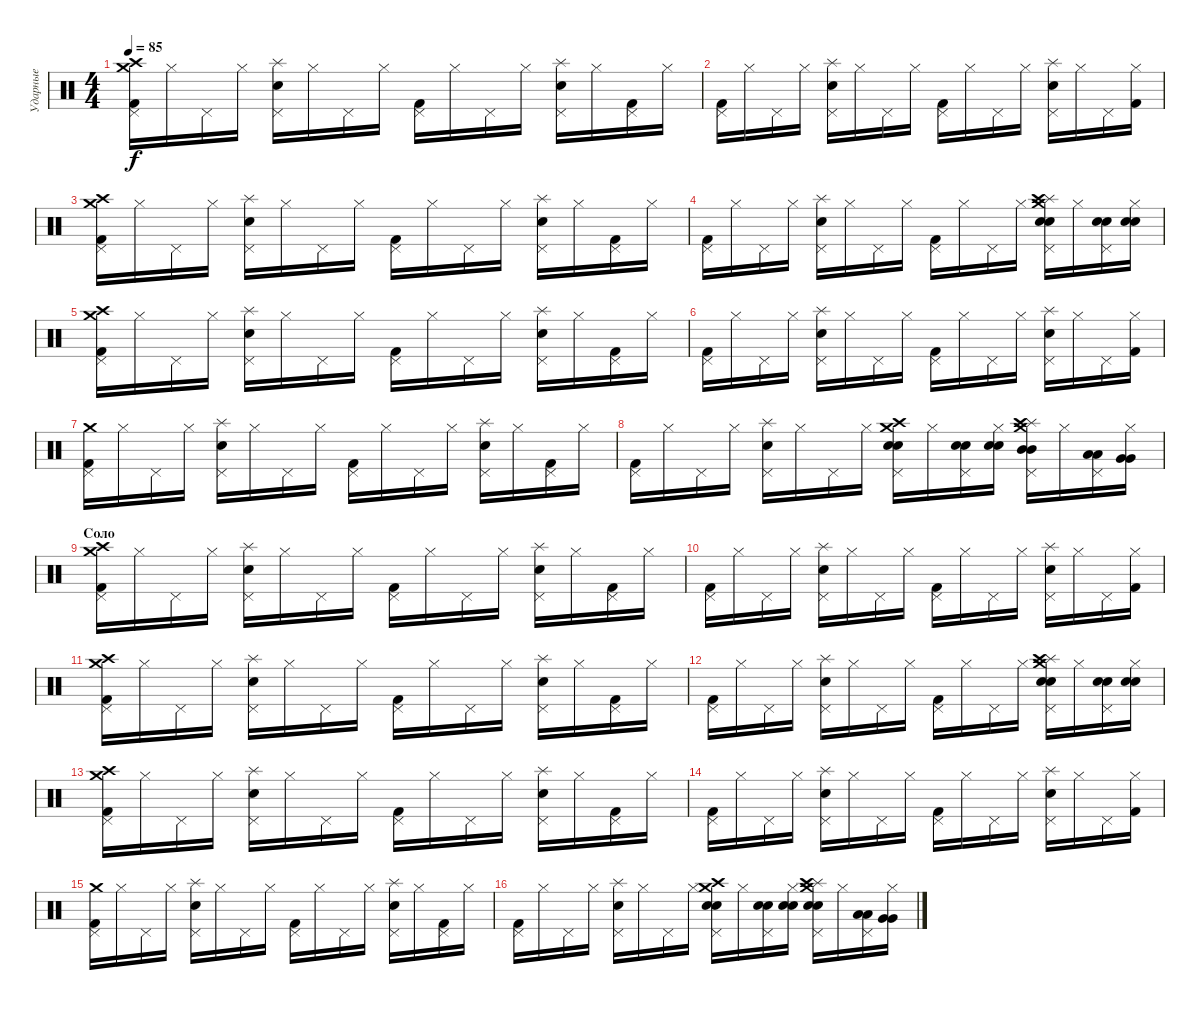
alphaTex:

\track ("Ударные" "Ударные") {instrument percussion}
\staff {score}
\articulation defaults
\ts (4 4)
\tempo 85
\clef neutral
\ks c
("Kick (hit) 2" "Pedal Hi-Hat (hit)" "Crash high (hit)" "Crash medium (hit)").16{dy f} "Hi-Hat (closed)".16 "Pedal Hi-Hat (hit)".16 "Hi-Hat (closed)".16 ("Snare (hit) 2" "Pedal Hi-Hat (hit)" "Splash (hit)").16 "Hi-Hat (closed)".16 "Pedal Hi-Hat (hit)".16 "Hi-Hat (closed)".16 ("Kick (hit) 2" "Pedal Hi-Hat (hit)").16 "Hi-Hat (closed)".16 "Pedal Hi-Hat (hit)".16 "Hi-Hat (closed)".16 ("Snare (hit) 2" "Pedal Hi-Hat (hit)" "Splash (hit)").16 "Hi-Hat (closed)".16 ("Kick (hit) 2" "Pedal Hi-Hat (hit)").16 "Hi-Hat (closed)".16 |
("Kick (hit) 2" "Pedal Hi-Hat (hit)").16 "Hi-Hat (closed)".16 "Pedal Hi-Hat (hit)".16 "Hi-Hat (closed)".16 ("Snare (hit) 2" "Pedal Hi-Hat (hit)" "Splash (hit)").16 "Hi-Hat (closed)".16 "Pedal Hi-Hat (hit)".16 "Hi-Hat (closed)".16 ("Kick (hit) 2" "Pedal Hi-Hat (hit)").16 "Hi-Hat (closed)".16 "Pedal Hi-Hat (hit)".16 "Hi-Hat (closed)".16 ("Snare (hit) 2" "Pedal Hi-Hat (hit)" "Splash (hit)").16 "Hi-Hat (closed)".16 "Pedal Hi-Hat (hit)".16 ("Kick (hit) 2" "Hi-Hat (closed)").16 |
("Kick (hit) 2" "Pedal Hi-Hat (hit)" "Crash medium (hit)" "Crash high (hit)").16 "Hi-Hat (closed)".16 "Pedal Hi-Hat (hit)".16 "Hi-Hat (closed)".16 ("Snare (hit) 2" "Pedal Hi-Hat (hit)" "Splash (hit)").16 "Hi-Hat (closed)".16 "Pedal Hi-Hat (hit)".16 "Hi-Hat (closed)".16 ("Kick (hit) 2" "Pedal Hi-Hat (hit)").16 "Hi-Hat (closed)".16 "Pedal Hi-Hat (hit)".16 "Hi-Hat (closed)".16 ("Snare (hit) 2" "Pedal Hi-Hat (hit)" "Splash (hit)").16 "Hi-Hat (closed)".16 ("Kick (hit) 2" "Pedal Hi-Hat (hit)").16 "Hi-Hat (closed)".16 |
("Kick (hit) 2" "Pedal Hi-Hat (hit)").16 "Hi-Hat (closed)".16 "Pedal Hi-Hat (hit)".16 "Hi-Hat (closed)".16 ("Snare (hit) 2" "Pedal Hi-Hat (hit)" "Splash (hit)").16 "Hi-Hat (closed)".16 "Pedal Hi-Hat (hit)".16 "Hi-Hat (closed)".16 ("Kick (hit) 2" "Pedal Hi-Hat (hit)").16 "Hi-Hat (closed)".16 "Pedal Hi-Hat (hit)".16 "Hi-Hat (closed)".16 ("Snare (hit) 2" "Snare (hit) 2" "Pedal Hi-Hat (hit)" "Splash (hit)" "Crash medium (hit)" "Crash high (hit)").16 "Hi-Hat (closed)".16 ("Snare (hit) 2" "Snare (hit) 2" "Pedal Hi-Hat (hit)").16 ("Snare (hit) 2" "Snare (hit) 2" "Hi-Hat (closed)").16 |
("Kick (hit) 2" "Pedal Hi-Hat (hit)" "Crash medium (hit)" "Crash high (hit)").16 "Hi-Hat (closed)".16 "Pedal Hi-Hat (hit)".16 "Hi-Hat (closed)".16 ("Snare (hit) 2" "Pedal Hi-Hat (hit)" "Splash (hit)").16 "Hi-Hat (closed)".16 "Pedal Hi-Hat (hit)".16 "Hi-Hat (closed)".16 ("Kick (hit) 2" "Pedal Hi-Hat (hit)").16 "Hi-Hat (closed)".16 "Pedal Hi-Hat (hit)".16 "Hi-Hat (closed)".16 ("Snare (hit) 2" "Pedal Hi-Hat (hit)" "Splash (hit)").16 "Hi-Hat (closed)".16 ("Kick (hit) 2" "Pedal Hi-Hat (hit)").16 "Hi-Hat (closed)".16 |
("Kick (hit) 2" "Pedal Hi-Hat (hit)").16 "Hi-Hat (closed)".16 "Pedal Hi-Hat (hit)".16 "Hi-Hat (closed)".16 ("Snare (hit) 2" "Pedal Hi-Hat (hit)" "Splash (hit)").16 "Hi-Hat (closed)".16 "Pedal Hi-Hat (hit)".16 "Hi-Hat (closed)".16 ("Kick (hit) 2" "Pedal Hi-Hat (hit)").16 "Hi-Hat (closed)".16 "Pedal Hi-Hat (hit)".16 "Hi-Hat (closed)".16 ("Snare (hit) 2" "Pedal Hi-Hat (hit)" "Splash (hit)").16 "Hi-Hat (closed)".16 "Pedal Hi-Hat (hit)".16 ("Kick (hit) 2" "Hi-Hat (closed)").16 |
("Kick (hit) 2" "Pedal Hi-Hat (hit)" "Crash medium (hit)").16 "Hi-Hat (closed)".16 "Pedal Hi-Hat (hit)".16 "Hi-Hat (closed)".16 ("Snare (hit) 2" "Pedal Hi-Hat (hit)" "Splash (hit)").16 "Hi-Hat (closed)".16 "Pedal Hi-Hat (hit)".16 "Hi-Hat (closed)".16 ("Kick (hit) 2" "Pedal Hi-Hat (hit)").16 "Hi-Hat (closed)".16 "Pedal Hi-Hat (hit)".16 "Hi-Hat (closed)".16 ("Snare (hit) 2" "Pedal Hi-Hat (hit)" "Splash (hit)").16 "Hi-Hat (closed)".16 ("Kick (hit) 2" "Pedal Hi-Hat (hit)").16 "Hi-Hat (closed)".16 |
("Kick (hit) 2" "Pedal Hi-Hat (hit)").16 "Hi-Hat (closed)".16 "Pedal Hi-Hat (hit)".16 "Hi-Hat (closed)".16 ("Snare (hit) 2" "Pedal Hi-Hat (hit)" "Splash (hit)").16 "Hi-Hat (closed)".16 "Pedal Hi-Hat (hit)".16 "Hi-Hat (closed)".16 ("Snare (hit) 2" "Snare (hit) 2" "Pedal Hi-Hat (hit)" "Crash medium (hit)" "Crash high (hit)").16 "Hi-Hat (closed)".16 ("Snare (hit) 2" "Snare (hit) 2" "Pedal Hi-Hat (hit)").16 ("Snare (hit) 2" "Snare (hit) 2" "Hi-Hat (closed)").16 ("Mid Tom (hit)" "Mid Tom (hit)" "Pedal Hi-Hat (hit)" "Splash (hit)" "Crash medium (hit)" "Crash high (hit)").16 "Hi-Hat (closed)".16 ("Low Tom (hit)" "Low Tom (hit)" "Pedal Hi-Hat (hit)").16 ("Very Low Tom (hit)" "Very Low Tom (hit)" "Hi-Hat (closed)").16 |
\section ("" "Соло")
("Kick (hit) 2" "Pedal Hi-Hat (hit)" "Crash high (hit)" "Crash medium (hit)").16 "Hi-Hat (closed)".16 "Pedal Hi-Hat (hit)".16 "Hi-Hat (closed)".16 ("Snare (hit) 2" "Pedal Hi-Hat (hit)" "Splash (hit)").16 "Hi-Hat (closed)".16 "Pedal Hi-Hat (hit)".16 "Hi-Hat (closed)".16 ("Kick (hit) 2" "Pedal Hi-Hat (hit)").16 "Hi-Hat (closed)".16 "Pedal Hi-Hat (hit)".16 "Hi-Hat (closed)".16 ("Snare (hit) 2" "Pedal Hi-Hat (hit)" "Splash (hit)").16 "Hi-Hat (closed)".16 ("Kick (hit) 2" "Pedal Hi-Hat (hit)").16 "Hi-Hat (closed)".16 |
("Kick (hit) 2" "Pedal Hi-Hat (hit)").16 "Hi-Hat (closed)".16 "Pedal Hi-Hat (hit)".16 "Hi-Hat (closed)".16 ("Snare (hit) 2" "Pedal Hi-Hat (hit)" "Splash (hit)").16 "Hi-Hat (closed)".16 "Pedal Hi-Hat (hit)".16 "Hi-Hat (closed)".16 ("Kick (hit) 2" "Pedal Hi-Hat (hit)").16 "Hi-Hat (closed)".16 "Pedal Hi-Hat (hit)".16 "Hi-Hat (closed)".16 ("Snare (hit) 2" "Pedal Hi-Hat (hit)" "Splash (hit)").16 "Hi-Hat (closed)".16 "Pedal Hi-Hat (hit)".16 ("Kick (hit) 2" "Hi-Hat (closed)").16 |
("Kick (hit) 2" "Pedal Hi-Hat (hit)" "Crash medium (hit)" "Crash high (hit)").16 "Hi-Hat (closed)".16 "Pedal Hi-Hat (hit)".16 "Hi-Hat (closed)".16 ("Snare (hit) 2" "Pedal Hi-Hat (hit)" "Splash (hit)").16 "Hi-Hat (closed)".16 "Pedal Hi-Hat (hit)".16 "Hi-Hat (closed)".16 ("Kick (hit) 2" "Pedal Hi-Hat (hit)").16 "Hi-Hat (closed)".16 "Pedal Hi-Hat (hit)".16 "Hi-Hat (closed)".16 ("Snare (hit) 2" "Pedal Hi-Hat (hit)" "Splash (hit)").16 "Hi-Hat (closed)".16 ("Kick (hit) 2" "Pedal Hi-Hat (hit)").16 "Hi-Hat (closed)".16 |
("Kick (hit) 2" "Pedal Hi-Hat (hit)").16 "Hi-Hat (closed)".16 "Pedal Hi-Hat (hit)".16 "Hi-Hat (closed)".16 ("Snare (hit) 2" "Pedal Hi-Hat (hit)" "Splash (hit)").16 "Hi-Hat (closed)".16 "Pedal Hi-Hat (hit)".16 "Hi-Hat (closed)".16 ("Kick (hit) 2" "Pedal Hi-Hat (hit)").16 "Hi-Hat (closed)".16 "Pedal Hi-Hat (hit)".16 "Hi-Hat (closed)".16 ("Snare (hit) 2" "Snare (hit) 2" "Pedal Hi-Hat (hit)" "Splash (hit)" "Crash medium (hit)" "Crash high (hit)").16 "Hi-Hat (closed)".16 ("Snare (hit) 2" "Snare (hit) 2" "Pedal Hi-Hat (hit)").16 ("Snare (hit) 2" "Snare (hit) 2" "Hi-Hat (closed)").16 |
("Kick (hit) 2" "Pedal Hi-Hat (hit)" "Crash medium (hit)" "Crash high (hit)").16 "Hi-Hat (closed)".16 "Pedal Hi-Hat (hit)".16 "Hi-Hat (closed)".16 ("Snare (hit) 2" "Pedal Hi-Hat (hit)" "Splash (hit)").16 "Hi-Hat (closed)".16 "Pedal Hi-Hat (hit)".16 "Hi-Hat (closed)".16 ("Kick (hit) 2" "Pedal Hi-Hat (hit)").16 "Hi-Hat (closed)".16 "Pedal Hi-Hat (hit)".16 "Hi-Hat (closed)".16 ("Snare (hit) 2" "Pedal Hi-Hat (hit)" "Splash (hit)").16 "Hi-Hat (closed)".16 ("Kick (hit) 2" "Pedal Hi-Hat (hit)").16 "Hi-Hat (closed)".16 |
("Kick (hit) 2" "Pedal Hi-Hat (hit)").16 "Hi-Hat (closed)".16 "Pedal Hi-Hat (hit)".16 "Hi-Hat (closed)".16 ("Snare (hit) 2" "Pedal Hi-Hat (hit)" "Splash (hit)").16 "Hi-Hat (closed)".16 "Pedal Hi-Hat (hit)".16 "Hi-Hat (closed)".16 ("Kick (hit) 2" "Pedal Hi-Hat (hit)").16 "Hi-Hat (closed)".16 "Pedal Hi-Hat (hit)".16 "Hi-Hat (closed)".16 ("Snare (hit) 2" "Pedal Hi-Hat (hit)" "Splash (hit)").16 "Hi-Hat (closed)".16 "Pedal Hi-Hat (hit)".16 ("Kick (hit) 2" "Hi-Hat (closed)").16 |
("Kick (hit) 2" "Pedal Hi-Hat (hit)" "Crash medium (hit)").16 "Hi-Hat (closed)".16 "Pedal Hi-Hat (hit)".16 "Hi-Hat (closed)".16 ("Snare (hit) 2" "Pedal Hi-Hat (hit)" "Splash (hit)").16 "Hi-Hat (closed)".16 "Pedal Hi-Hat (hit)".16 "Hi-Hat (closed)".16 ("Kick (hit) 2" "Pedal Hi-Hat (hit)").16 "Hi-Hat (closed)".16 "Pedal Hi-Hat (hit)".16 "Hi-Hat (closed)".16 ("Snare (hit) 2" "Pedal Hi-Hat (hit)" "Splash (hit)").16 "Hi-Hat (closed)".16 ("Kick (hit) 2" "Pedal Hi-Hat (hit)").16 "Hi-Hat (closed)".16 |
("Kick (hit) 2" "Pedal Hi-Hat (hit)").16 "Hi-Hat (closed)".16 "Pedal Hi-Hat (hit)".16 "Hi-Hat (closed)".16 ("Snare (hit) 2" "Pedal Hi-Hat (hit)" "Splash (hit)").16 "Hi-Hat (closed)".16 "Pedal Hi-Hat (hit)".16 "Hi-Hat (closed)".16 ("Snare (hit) 2" "Snare (hit) 2" "Pedal Hi-Hat (hit)" "Crash medium (hit)" "Crash high (hit)").16 "Hi-Hat (closed)".16 ("Snare (hit) 2" "Snare (hit) 2" "Pedal Hi-Hat (hit)").16 ("Snare (hit) 2" "Snare (hit) 2" "Hi-Hat (closed)").16 ("Snare (hit) 2" "Snare (hit) 2" "Pedal Hi-Hat (hit)" "Splash (hit)" "Crash medium (hit)" "Crash high (hit)").16 "Hi-Hat (closed)".16 ("Low Tom (hit)" "Low Tom (hit)" "Pedal Hi-Hat (hit)").16 ("Very Low Tom (hit)" "Very Low Tom (hit)" "Hi-Hat (closed)").16
